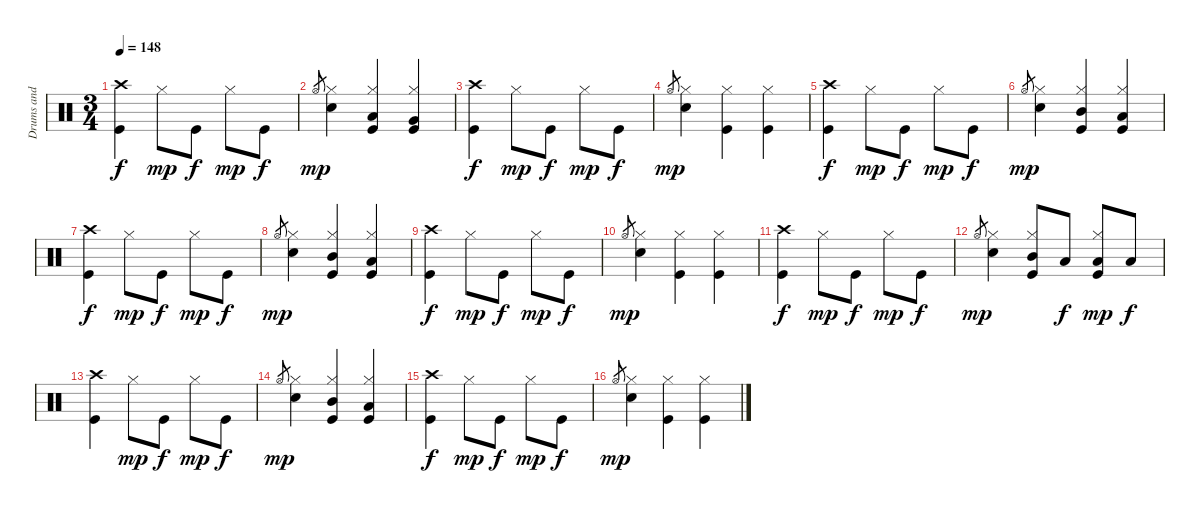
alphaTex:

\track ("Drums and percussion" "Drums and ") {instrument percussion}
\staff {score}
\articulation defaults
\ts (3 4)
\tempo 148
\clef neutral
\ks c
("Crash high (hit)" "Kick (hit)").4{dy f} "Hi-Hat (closed)".8{dy mp} "Kick (hit)".8{dy f} "Hi-Hat (closed)".8{dy mp} "Kick (hit)".8{dy f} |
"Hi-Hat (open)".8{gr dy mp} ("Hi-Hat (closed)" "Electric Snare (hit)").4 ("Hi-Hat (closed)" "Low Tom (hit)" "Kick (hit)").4 ("Hi-Hat (closed)" "Very Low Tom (hit)" "Kick (hit)").4 |
("Crash high (hit)" "Kick (hit)").4{dy f} "Hi-Hat (closed)".8{dy mp} "Kick (hit)".8{dy f} "Hi-Hat (closed)".8{dy mp} "Kick (hit)".8{dy f} |
"Hi-Hat (open)".8{gr dy mp} ("Hi-Hat (closed)" "Electric Snare (hit)").4 ("Hi-Hat (closed)" "Kick (hit)").4 ("Hi-Hat (closed)" "Kick (hit)").4 |
("Crash high (hit)" "Kick (hit)").4{dy f} "Hi-Hat (closed)".8{dy mp} "Kick (hit)".8{dy f} "Hi-Hat (closed)".8{dy mp} "Kick (hit)".8{dy f} |
"Hi-Hat (open)".8{gr dy mp} ("Hi-Hat (closed)" "Electric Snare (hit)").4 ("Hi-Hat (closed)" "Mid Tom (hit)" "Kick (hit)").4 ("Hi-Hat (closed)" "Low Tom (hit)" "Kick (hit)").4 |
("Crash high (hit)" "Kick (hit)").4{dy f} "Hi-Hat (closed)".8{dy mp} "Kick (hit)".8{dy f} "Hi-Hat (closed)".8{dy mp} "Kick (hit)".8{dy f} |
"Hi-Hat (open)".8{gr dy mp} ("Hi-Hat (closed)" "Electric Snare (hit)").4 ("Hi-Hat (closed)" "Mid Tom (hit)" "Kick (hit)").4 ("Hi-Hat (closed)" "Low Tom (hit)" "Kick (hit)").4 |
("Crash high (hit)" "Kick (hit)").4{dy f} "Hi-Hat (closed)".8{dy mp} "Kick (hit)".8{dy f} "Hi-Hat (closed)".8{dy mp} "Kick (hit)".8{dy f} |
"Hi-Hat (open)".8{gr dy mp} ("Hi-Hat (closed)" "Electric Snare (hit)").4 ("Hi-Hat (closed)" "Kick (hit)").4 ("Hi-Hat (closed)" "Kick (hit)").4 |
("Crash high (hit)" "Kick (hit)").4{dy f} "Hi-Hat (closed)".8{dy mp} "Kick (hit)".8{dy f} "Hi-Hat (closed)".8{dy mp} "Kick (hit)".8{dy f} |
"Hi-Hat (open)".8{gr dy mp} ("Hi-Hat (closed)" "Electric Snare (hit)").4 ("Hi-Hat (closed)" "Mid Tom (hit)" "Kick (hit)").8 "Low Tom (hit)".8{dy f} ("Hi-Hat (closed)" "Low Tom (hit)" "Kick (hit)").8{dy mp} "Low Tom (hit)".8{dy f} |
("Crash high (hit)" "Kick (hit)").4 "Hi-Hat (closed)".8{dy mp} "Kick (hit)".8{dy f} "Hi-Hat (closed)".8{dy mp} "Kick (hit)".8{dy f} |
"Hi-Hat (open)".8{gr dy mp} ("Hi-Hat (closed)" "Electric Snare (hit)").4 ("Hi-Hat (closed)" "Mid Tom (hit)" "Kick (hit)").4 ("Hi-Hat (closed)" "Low Tom (hit)" "Kick (hit)").4 |
("Crash high (hit)" "Kick (hit)").4{dy f} "Hi-Hat (closed)".8{dy mp} "Kick (hit)".8{dy f} "Hi-Hat (closed)".8{dy mp} "Kick (hit)".8{dy f} |
"Hi-Hat (open)".8{gr dy mp} ("Hi-Hat (closed)" "Electric Snare (hit)").4 ("Hi-Hat (closed)" "Kick (hit)").4 ("Hi-Hat (closed)" "Kick (hit)").4
